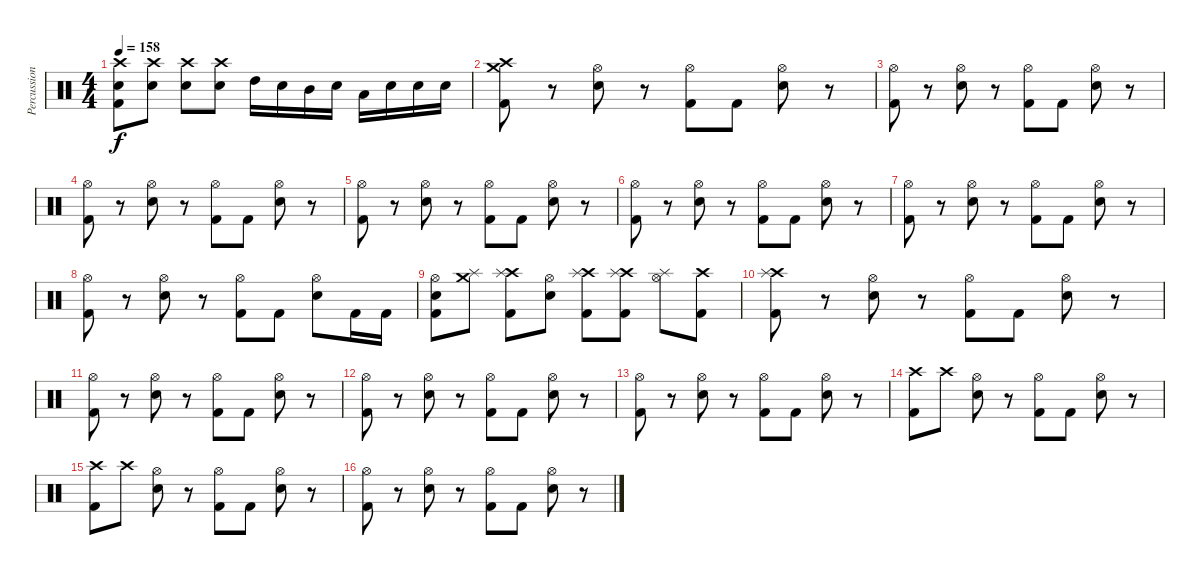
\track ("Percussion" "Percussion") {instrument percussion}
\staff {score}
\articulation defaults
\ts (4 4)
\tempo 158
\clef neutral
\ks c
("Crash high (hit)" "Snare (hit) 2" "Kick (hit) 2").8{dy f} ("Crash high (hit)" "Snare (hit) 2").8 ("Crash high (hit)" "Snare (hit) 2").8 ("Crash high (hit)" "Snare (hit) 2").8 "High Tom (hit)".16 "Snare (hit) 2".16 "Mid Tom (hit)".16 "Snare (hit) 2".16 "Low Tom (hit)".16 "Snare (hit) 2".16 "Snare (hit) 2".16 "Snare (hit) 2".16 |
("Crash high (hit)" "Crash medium (hit)" "Kick (hit) 2").8 r.8 ("Hi-Hat (open)" "Snare (hit) 2").8 r.8 ("Hi-Hat (open)" "Kick (hit) 2").8 "Kick (hit) 2".8 ("Hi-Hat (open)" "Snare (hit) 2").8 r.8 |
("Hi-Hat (open)" "Kick (hit) 2").8 r.8 ("Hi-Hat (open)" "Snare (hit) 2").8 r.8 ("Hi-Hat (open)" "Kick (hit) 2").8 "Kick (hit) 2".8 ("Hi-Hat (open)" "Snare (hit) 2").8 r.8 |
("Hi-Hat (open)" "Kick (hit) 2").8 r.8 ("Hi-Hat (open)" "Snare (hit) 2").8 r.8 ("Hi-Hat (open)" "Kick (hit) 2").8 "Kick (hit) 2".8 ("Hi-Hat (open)" "Snare (hit) 2").8 r.8 |
("Hi-Hat (open)" "Kick (hit) 2").8 r.8 ("Hi-Hat (open)" "Snare (hit) 2").8 r.8 ("Hi-Hat (open)" "Kick (hit) 2").8 "Kick (hit) 2".8 ("Hi-Hat (open)" "Snare (hit) 2").8 r.8 |
("Hi-Hat (open)" "Kick (hit) 2").8 r.8 ("Hi-Hat (open)" "Snare (hit) 2").8 r.8 ("Hi-Hat (open)" "Kick (hit) 2").8 "Kick (hit) 2".8 ("Hi-Hat (open)" "Snare (hit) 2").8 r.8 |
("Hi-Hat (open)" "Kick (hit) 2").8 r.8 ("Hi-Hat (open)" "Snare (hit) 2").8 r.8 ("Hi-Hat (open)" "Kick (hit) 2").8 "Kick (hit) 2".8 ("Hi-Hat (open)" "Snare (hit) 2").8 r.8 |
("Hi-Hat (open)" "Kick (hit) 2").8 r.8 ("Hi-Hat (open)" "Snare (hit) 2").8 r.8 ("Hi-Hat (open)" "Kick (hit) 2").8 "Kick (hit) 2".8 ("Hi-Hat (open)" "Snare (hit) 2").8 "Kick (hit) 2".16 "Kick (hit) 2".16 |
("Hi-Hat (open)" "Snare (hit) 2" "Kick (hit) 2").8 ("Crash medium (hit)" "Splash (hit)").8 ("Crash high (hit)" "Splash (hit)" "Kick (hit) 2").8 ("Hi-Hat (open)" "Snare (hit) 2").8 ("Crash high (hit)" "Splash (hit)" "Kick (hit) 2").8 ("Crash high (hit)" "Splash (hit)" "Kick (hit) 2").8 ("Hi-Hat (open)" "Splash (hit)").8 ("Crash high (hit)" "Kick (hit) 2").8 |
("Crash high (hit)" "Splash (hit)" "Kick (hit) 2").8 r.8 ("Hi-Hat (open)" "Snare (hit) 2").8 r.8 ("Hi-Hat (open)" "Kick (hit) 2").8 "Kick (hit) 2".8 ("Hi-Hat (open)" "Snare (hit) 2").8 r.8 |
("Hi-Hat (open)" "Kick (hit) 2").8 r.8 ("Hi-Hat (open)" "Snare (hit) 2").8 r.8 ("Hi-Hat (open)" "Kick (hit) 2").8 "Kick (hit) 2".8 ("Hi-Hat (open)" "Snare (hit) 2").8 r.8 |
("Hi-Hat (open)" "Kick (hit) 2").8 r.8 ("Hi-Hat (open)" "Snare (hit) 2").8 r.8 ("Hi-Hat (open)" "Kick (hit) 2").8 "Kick (hit) 2".8 ("Hi-Hat (open)" "Snare (hit) 2").8 r.8 |
("Hi-Hat (open)" "Kick (hit) 2").8 r.8 ("Hi-Hat (open)" "Snare (hit) 2").8 r.8 ("Hi-Hat (open)" "Kick (hit) 2").8 "Kick (hit) 2".8 ("Hi-Hat (open)" "Snare (hit) 2").8 r.8 |
("Crash high (hit)" "Kick (hit) 2").8 "Crash high (hit)".8 ("Hi-Hat (open)" "Snare (hit) 2").8 r.8 ("Hi-Hat (open)" "Kick (hit) 2").8 "Kick (hit) 2".8 ("Hi-Hat (open)" "Snare (hit) 2").8 r.8 |
("Crash high (hit)" "Kick (hit) 2").8 "Crash high (hit)".8 ("Hi-Hat (open)" "Snare (hit) 2").8 r.8 ("Hi-Hat (open)" "Kick (hit) 2").8 "Kick (hit) 2".8 ("Hi-Hat (open)" "Snare (hit) 2").8 r.8 |
("Hi-Hat (open)" "Kick (hit) 2").8 r.8 ("Hi-Hat (open)" "Snare (hit) 2").8 r.8 ("Hi-Hat (open)" "Kick (hit) 2").8 "Kick (hit) 2".8 ("Hi-Hat (open)" "Snare (hit) 2").8 r.8
